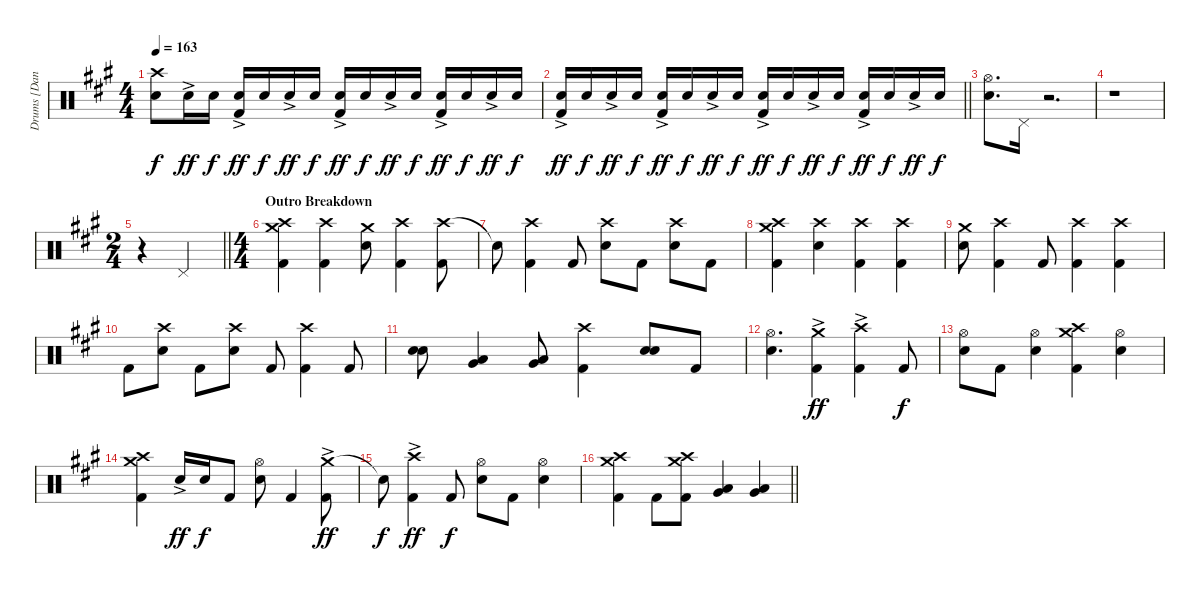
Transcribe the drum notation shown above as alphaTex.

\track ("Drums [Daniel Davison]" "Drums [Dan") {instrument percussion}
\staff {score}
\articulation defaults
\ts (4 4)
\tempo 163
\clef neutral
\ks a
("Crash high (hit)" "Electric Snare (hit)").8{dy f} "Electric Snare (hit)"{ac}.16{dy ff} "Electric Snare (hit)".16{dy f} ("Electric Snare (hit)"{ac} "Kick (hit) 2").16{dy ff} "Electric Snare (hit)".16{dy f} "Electric Snare (hit)"{ac}.16{dy ff} "Electric Snare (hit)".16{dy f} ("Electric Snare (hit)"{ac} "Kick (hit) 2").16{dy ff} "Electric Snare (hit)".16{dy f} "Electric Snare (hit)"{ac}.16{dy ff} "Electric Snare (hit)".16{dy f} ("Electric Snare (hit)"{ac} "Kick (hit) 2").16{dy ff} "Electric Snare (hit)".16{dy f} "Electric Snare (hit)"{ac}.16{dy ff} "Electric Snare (hit)".16{dy f} |
\barLineRight lightlight
("Electric Snare (hit)"{ac} "Kick (hit) 2").16{dy ff} "Electric Snare (hit)".16{dy f} "Electric Snare (hit)"{ac}.16{dy ff} "Electric Snare (hit)".16{dy f} ("Electric Snare (hit)"{ac} "Kick (hit) 2").16{dy ff} "Electric Snare (hit)".16{dy f} "Electric Snare (hit)"{ac}.16{dy ff} "Electric Snare (hit)".16{dy f} ("Electric Snare (hit)"{ac} "Kick (hit) 2").16{dy ff} "Electric Snare (hit)".16{dy f} "Electric Snare (hit)"{ac}.16{dy ff} "Electric Snare (hit)".16{dy f} ("Electric Snare (hit)"{ac} "Kick (hit) 2").16{dy ff} "Electric Snare (hit)".16{dy f} "Electric Snare (hit)"{ac}.16{dy ff} "Electric Snare (hit)".16{dy f} |
\section ("" "")
("Hi-Hat (open)" "Electric Snare (hit)").8{d} "Pedal Hi-Hat (hit)".16 r.2{d} |
r.1 |
\ts (2 4)
\barLineRight lightlight
r.4 "Pedal Hi-Hat (hit)".4 |
\ts (4 4)
\section ("" "Outro Breakdown")
("Crash medium (hit)" "Crash high (hit)" "Kick (hit) 2").4 ("Crash high (hit)" "Kick (hit) 2").4 ("Crash medium (hit)" "Electric Snare (hit)").8 ("Crash high (hit)" "Kick (hit) 2").4 ("Crash high (hit)" "Kick (hit) 2").8 |
"Snare (hit)"{t}.8 ("Crash high (hit)" "Kick (hit) 2").4 "Kick (hit) 2".8 ("Crash high (hit)" "Electric Snare (hit)").8 "Kick (hit) 2".8 ("Crash high (hit)" "Electric Snare (hit)").8 "Kick (hit) 2".8 |
("Crash medium (hit)" "Crash high (hit)" "Kick (hit) 2").4 ("Crash high (hit)" "Electric Snare (hit)").4 ("Crash high (hit)" "Kick (hit) 2").4 ("Crash high (hit)" "Kick (hit) 2").4 |
("Crash medium (hit)" "Electric Snare (hit)").8 ("Crash high (hit)" "Kick (hit) 2").4 "Kick (hit) 2".8 ("Crash high (hit)" "Kick (hit) 2").4 ("Crash high (hit)" "Kick (hit) 2").4 |
"Kick (hit) 2".8 ("Crash high (hit)" "Electric Snare (hit)").8 "Kick (hit) 2".8 ("Crash high (hit)" "Electric Snare (hit)").8 "Kick (hit) 2".8 ("Crash high (hit)" "Kick (hit) 2").4 "Kick (hit) 2".8 |
("Electric Snare (hit)" "Electric Snare (hit)").8{bu 60} ("Low Tom (hit)" "Very Low Tom (hit)").4{bu 60} ("Low Tom (hit)" "Very Low Tom (hit)").8{bu 60} ("Crash high (hit)" "Kick (hit) 2").4 ("Electric Snare (hit)" "Electric Snare (hit)").8{bu 60} "Kick (hit) 2".8 |
("Hi-Hat (open)" "Electric Snare (hit)").4{d} ("Crash medium (hit)"{ac} "Kick (hit) 2").4{dy ff} ("Crash high (hit)"{ac} "Kick (hit) 2").4 "Kick (hit) 2".8{dy f} |
("Hi-Hat (open)" "Electric Snare (hit)").8 "Kick (hit) 2".8 ("Hi-Hat (open)" "Electric Snare (hit)").4 ("Crash medium (hit)" "Crash high (hit)" "Kick (hit) 2").4 ("Hi-Hat (open)" "Electric Snare (hit)").4 |
("Crash medium (hit)" "Crash high (hit)" "Kick (hit) 2").4 "Electric Snare (hit)"{ac}.16{dy ff} "Electric Snare (hit)".16{dy f} "Kick (hit) 2".8 ("Hi-Hat (open)" "Electric Snare (hit)").8 "Kick (hit) 2".4 ("Crash medium (hit)"{ac} "Kick (hit) 2").8{dy ff} |
"Snare (hit)"{t}.8{dy f} ("Crash high (hit)"{ac} "Kick (hit) 2").4{dy ff} "Kick (hit) 2".8{dy f} ("Hi-Hat (open)" "Electric Snare (hit)").8 "Kick (hit) 2".8 ("Hi-Hat (open)" "Electric Snare (hit)").4 |
\barLineRight lightlight
("Crash medium (hit)" "Crash high (hit)" "Kick (hit) 2").4 "Kick (hit) 2".8 ("Crash medium (hit)" "Crash high (hit)" "Kick (hit) 2").8 ("Very Low Tom (hit)" "Low Floor Tom (hit)").4 ("Very Low Tom (hit)" "Low Floor Tom (hit)").4
